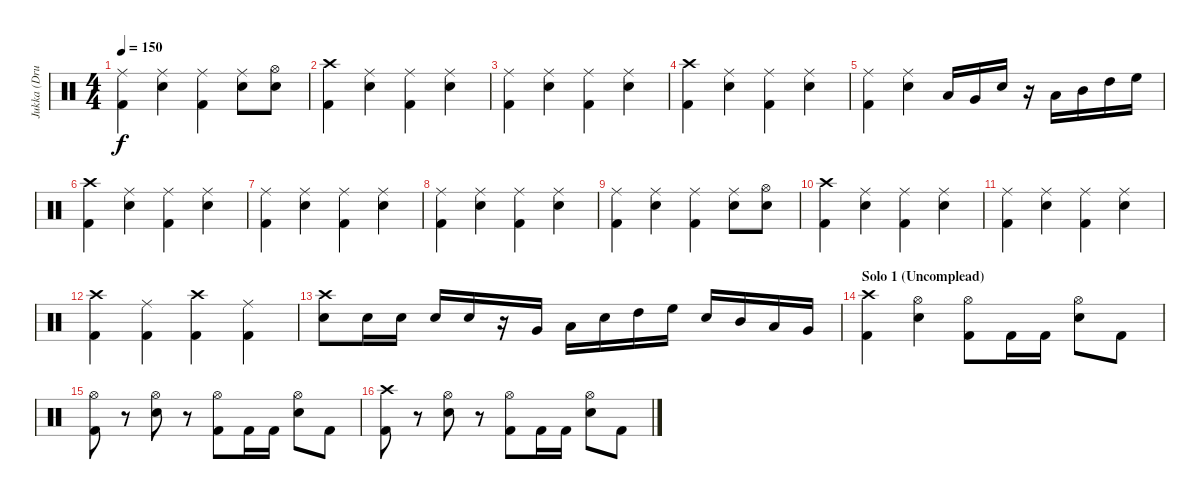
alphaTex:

\track ("Jukka (Drums)" "Jukka (Dru") {instrument percussion}
\staff {score}
\articulation defaults
\ts (4 4)
\tempo 150
\clef neutral
\ks c
("Kick (hit) 2" "Ride (middle)").4{dy f} ("Ride (middle)" "Electric Snare (hit)").4 ("Kick (hit) 2" "Ride (middle)").4 ("Ride (middle)" "Electric Snare (hit)").8 ("Hi-Hat (open)" "Electric Snare (hit)").8 |
("Kick (hit) 2" "Crash high (hit)").4 ("Electric Snare (hit)" "Ride (middle)").4 ("Kick (hit) 2" "Ride (middle)").4 ("Electric Snare (hit)" "Ride (middle)").4 |
("Kick (hit) 2" "Ride (middle)").4 ("Electric Snare (hit)" "Ride (middle)").4 ("Kick (hit) 2" "Ride (middle)").4 ("Electric Snare (hit)" "Ride (middle)").4 |
("Kick (hit) 2" "Crash high (hit)").4 ("Electric Snare (hit)" "Ride (middle)").4 ("Kick (hit) 2" "Ride (middle)").4 ("Electric Snare (hit)" "Ride (middle)").4 |
("Kick (hit) 2" "Ride (middle)").4 ("Electric Snare (hit)" "Ride (middle)").4 "Low Floor Tom (hit)".16 "Very Low Tom (hit)".16 "Electric Snare (hit)".16 r.16 "Low Tom (hit)".16 "Mid Tom (hit)".16 "High Tom (hit)".16 "High Floor Tom (hit)".16 |
("Kick (hit) 2" "Crash high (hit)").4 ("Electric Snare (hit)" "Ride (middle)").4 ("Kick (hit) 2" "Ride (middle)").4 ("Electric Snare (hit)" "Ride (middle)").4 |
("Kick (hit) 2" "Ride (middle)").4 ("Electric Snare (hit)" "Ride (middle)").4 ("Kick (hit) 2" "Ride (middle)").4 ("Electric Snare (hit)" "Ride (middle)").4 |
("Kick (hit) 2" "Ride (middle)").4 ("Electric Snare (hit)" "Ride (middle)").4 ("Kick (hit) 2" "Ride (middle)").4 ("Electric Snare (hit)" "Ride (middle)").4 |
("Kick (hit) 2" "Ride (middle)").4 ("Ride (middle)" "Electric Snare (hit)").4 ("Kick (hit) 2" "Ride (middle)").4 ("Ride (middle)" "Electric Snare (hit)").8 ("Hi-Hat (open)" "Electric Snare (hit)").8 |
("Kick (hit) 2" "Crash high (hit)").4 ("Electric Snare (hit)" "Ride (middle)").4 ("Kick (hit) 2" "Ride (middle)").4 ("Electric Snare (hit)" "Ride (middle)").4 |
("Kick (hit) 2" "Ride (middle)").4 ("Electric Snare (hit)" "Ride (middle)").4 ("Kick (hit) 2" "Ride (middle)").4 ("Electric Snare (hit)" "Ride (middle)").4 |
("Kick (hit) 2" "Crash high (hit)").4 ("Kick (hit) 2" "Ride (middle)").4 ("Kick (hit) 2" "Crash high (hit)").4 ("Kick (hit) 2" "Ride (middle)").4 |
("Crash high (hit)" "Electric Snare (hit)").8 "Electric Snare (hit)".16 "Electric Snare (hit)".16 "Electric Snare (hit)".16 "Electric Snare (hit)".16 r.16 "Very Low Tom (hit)".16 "Low Tom (hit)".16 "Electric Snare (hit)".16 "High Tom (hit)".16 "High Floor Tom (hit)".16 "Electric Snare (hit)".16 "Mid Tom (hit)".16 "Low Tom (hit)".16 "Very Low Tom (hit)".16 |
\section ("" "Solo 1 (Uncomplead)")
("Kick (hit) 2" "Crash high (hit)").4 ("Hi-Hat (open)" "Electric Snare (hit)").4 ("Kick (hit) 2" "Hi-Hat (open)").8 "Kick (hit) 2".16 "Kick (hit) 2".16 ("Hi-Hat (open)" "Electric Snare (hit)").8 "Kick (hit) 2".8 |
("Kick (hit) 2" "Hi-Hat (open)").8 r.8 ("Hi-Hat (open)" "Electric Snare (hit)").8 r.8 ("Kick (hit) 2" "Hi-Hat (open)").8 "Kick (hit) 2".16 "Kick (hit) 2".16 ("Hi-Hat (open)" "Electric Snare (hit)").8 "Kick (hit) 2".8 |
("Kick (hit) 2" "Crash high (hit)").8 r.8 ("Hi-Hat (open)" "Electric Snare (hit)").8 r.8 ("Kick (hit) 2" "Hi-Hat (open)").8 "Kick (hit) 2".16 "Kick (hit) 2".16 ("Hi-Hat (open)" "Electric Snare (hit)").8 "Kick (hit) 2".8
